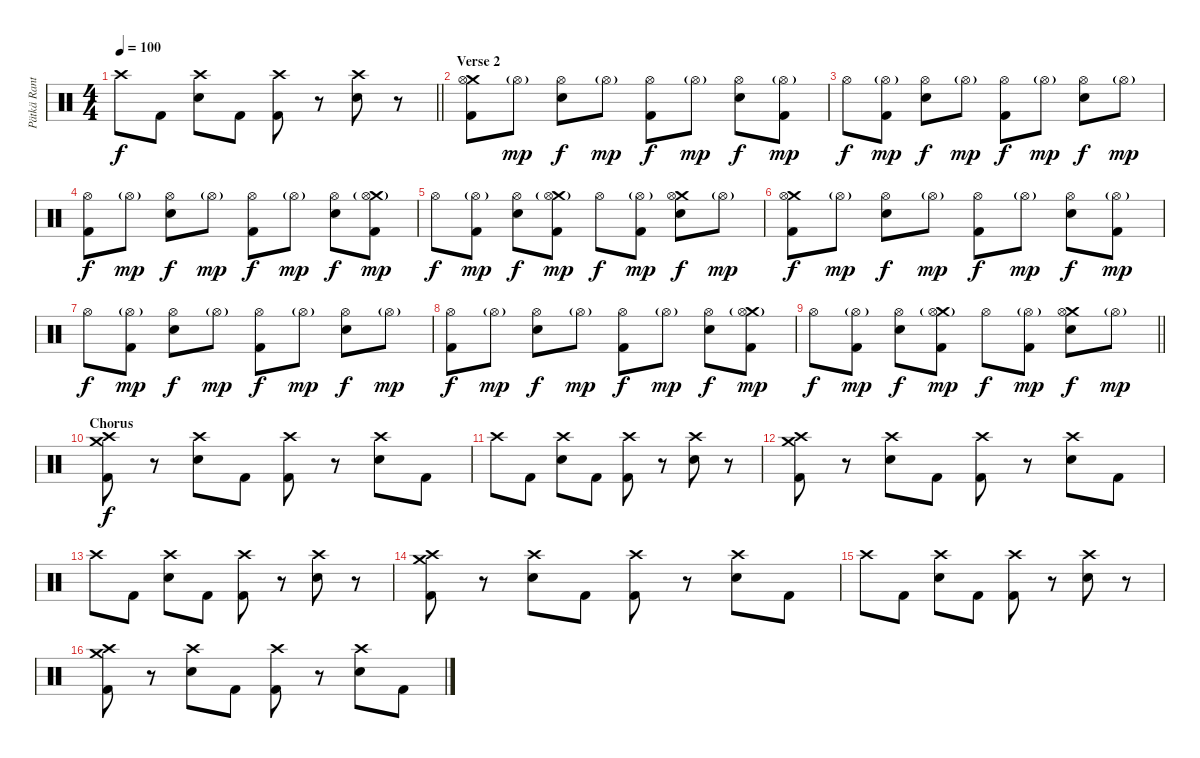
\track ("Pätkä Rantala (Drums)" "Pätkä Rant") {instrument percussion}
\staff {score}
\articulation defaults
\ts (4 4)
\tempo 100
\clef neutral
\barLineRight lightlight
\ks c "Crash high (hit)".8{dy f} "Kick (hit) 2".8
("Crash high (hit)" "Snare (hit) 2").8 "Kick (hit) 2".8 ("Crash high (hit)" "Kick (hit) 2").8 r.8 ("Crash high (hit)" "Snare (hit) 2").8 r.8 |
\section ("" "Verse 2")
("Crash medium (hit)" "Hi-Hat (open)" "Kick (hit) 2").8 "Hi-Hat (open)"{g}.8{dy mp} ("Hi-Hat (open)" "Snare (hit) 2").8{dy f} "Hi-Hat (open)"{g}.8{dy mp} ("Hi-Hat (open)" "Kick (hit) 2").8{dy f} "Hi-Hat (open)"{g}.8{dy mp} ("Hi-Hat (open)" "Snare (hit) 2").8{dy f} ("Hi-Hat (open)"{g} "Kick (hit) 2").8{dy mp} |
"Hi-Hat (open)".8{dy f} ("Hi-Hat (open)"{g} "Kick (hit) 2").8{dy mp} ("Hi-Hat (open)" "Snare (hit) 2").8{dy f} "Hi-Hat (open)"{g}.8{dy mp} ("Hi-Hat (open)" "Kick (hit) 2").8{dy f} "Hi-Hat (open)"{g}.8{dy mp} ("Hi-Hat (open)" "Snare (hit) 2").8{dy f} "Hi-Hat (open)"{g}.8{dy mp} |
("Hi-Hat (open)" "Kick (hit) 2").8{dy f} "Hi-Hat (open)"{g}.8{dy mp} ("Hi-Hat (open)" "Snare (hit) 2").8{dy f} "Hi-Hat (open)"{g}.8{dy mp} ("Hi-Hat (open)" "Kick (hit) 2").8{dy f} "Hi-Hat (open)"{g}.8{dy mp} ("Hi-Hat (open)" "Snare (hit) 2").8{dy f} ("Crash medium (hit)" "Hi-Hat (open)"{g} "Kick (hit) 2").8{dy mp} |
"Hi-Hat (open)".8{dy f} ("Hi-Hat (open)"{g} "Kick (hit) 2").8{dy mp} ("Hi-Hat (open)" "Snare (hit) 2").8{dy f} ("Crash medium (hit)" "Hi-Hat (open)"{g} "Kick (hit) 2").8{dy mp} "Hi-Hat (open)".8{dy f} ("Hi-Hat (open)"{g} "Kick (hit) 2").8{dy mp} ("Crash medium (hit)" "Hi-Hat (open)" "Snare (hit) 2").8{dy f} "Hi-Hat (open)"{g}.8{dy mp} |
("Crash medium (hit)" "Hi-Hat (open)" "Kick (hit) 2").8{dy f} "Hi-Hat (open)"{g}.8{dy mp} ("Hi-Hat (open)" "Snare (hit) 2").8{dy f} "Hi-Hat (open)"{g}.8{dy mp} ("Hi-Hat (open)" "Kick (hit) 2").8{dy f} "Hi-Hat (open)"{g}.8{dy mp} ("Hi-Hat (open)" "Snare (hit) 2").8{dy f} ("Hi-Hat (open)"{g} "Kick (hit) 2").8{dy mp} |
"Hi-Hat (open)".8{dy f} ("Hi-Hat (open)"{g} "Kick (hit) 2").8{dy mp} ("Hi-Hat (open)" "Snare (hit) 2").8{dy f} "Hi-Hat (open)"{g}.8{dy mp} ("Hi-Hat (open)" "Kick (hit) 2").8{dy f} "Hi-Hat (open)"{g}.8{dy mp} ("Hi-Hat (open)" "Snare (hit) 2").8{dy f} "Hi-Hat (open)"{g}.8{dy mp} |
("Hi-Hat (open)" "Kick (hit) 2").8{dy f} "Hi-Hat (open)"{g}.8{dy mp} ("Hi-Hat (open)" "Snare (hit) 2").8{dy f} "Hi-Hat (open)"{g}.8{dy mp} ("Hi-Hat (open)" "Kick (hit) 2").8{dy f} "Hi-Hat (open)"{g}.8{dy mp} ("Hi-Hat (open)" "Snare (hit) 2").8{dy f} ("Crash medium (hit)" "Hi-Hat (open)"{g} "Kick (hit) 2").8{dy mp} |
\barLineRight lightlight "Hi-Hat (open)".8{dy f}
("Hi-Hat (open)"{g} "Kick (hit) 2").8{dy mp} ("Hi-Hat (open)" "Snare (hit) 2").8{dy f} ("Crash medium (hit)" "Hi-Hat (open)"{g} "Kick (hit) 2").8{dy mp} "Hi-Hat (open)".8{dy f} ("Hi-Hat (open)"{g} "Kick (hit) 2").8{dy mp} ("Crash medium (hit)" "Hi-Hat (open)" "Snare (hit) 2").8{dy f} "Hi-Hat (open)"{g}.8{dy mp} |
\section ("" "Chorus")
("Crash medium (hit)" "Crash high (hit)" "Kick (hit) 2").8{dy f} r.8 ("Crash high (hit)" "Snare (hit) 2").8 "Kick (hit) 2".8 ("Crash high (hit)" "Kick (hit) 2").8 r.8 ("Crash high (hit)" "Snare (hit) 2").8 "Kick (hit) 2".8 |
"Crash high (hit)".8 "Kick (hit) 2".8 ("Crash high (hit)" "Snare (hit) 2").8 "Kick (hit) 2".8 ("Crash high (hit)" "Kick (hit) 2").8 r.8 ("Crash high (hit)" "Snare (hit) 2").8 r.8 |
("Crash medium (hit)" "Crash high (hit)" "Kick (hit) 2").8 r.8 ("Crash high (hit)" "Snare (hit) 2").8 "Kick (hit) 2".8 ("Crash high (hit)" "Kick (hit) 2").8 r.8 ("Crash high (hit)" "Snare (hit) 2").8 "Kick (hit) 2".8 |
"Crash high (hit)".8 "Kick (hit) 2".8 ("Crash high (hit)" "Snare (hit) 2").8 "Kick (hit) 2".8 ("Crash high (hit)" "Kick (hit) 2").8 r.8 ("Crash high (hit)" "Snare (hit) 2").8 r.8 |
("Crash medium (hit)" "Crash high (hit)" "Kick (hit) 2").8 r.8 ("Crash high (hit)" "Snare (hit) 2").8 "Kick (hit) 2".8 ("Crash high (hit)" "Kick (hit) 2").8 r.8 ("Crash high (hit)" "Snare (hit) 2").8 "Kick (hit) 2".8 |
"Crash high (hit)".8 "Kick (hit) 2".8 ("Crash high (hit)" "Snare (hit) 2").8 "Kick (hit) 2".8 ("Crash high (hit)" "Kick (hit) 2").8 r.8 ("Crash high (hit)" "Snare (hit) 2").8 r.8 |
("Crash medium (hit)" "Crash high (hit)" "Kick (hit) 2").8 r.8 ("Crash high (hit)" "Snare (hit) 2").8 "Kick (hit) 2".8 ("Crash high (hit)" "Kick (hit) 2").8 r.8 ("Crash high (hit)" "Snare (hit) 2").8 "Kick (hit) 2".8
